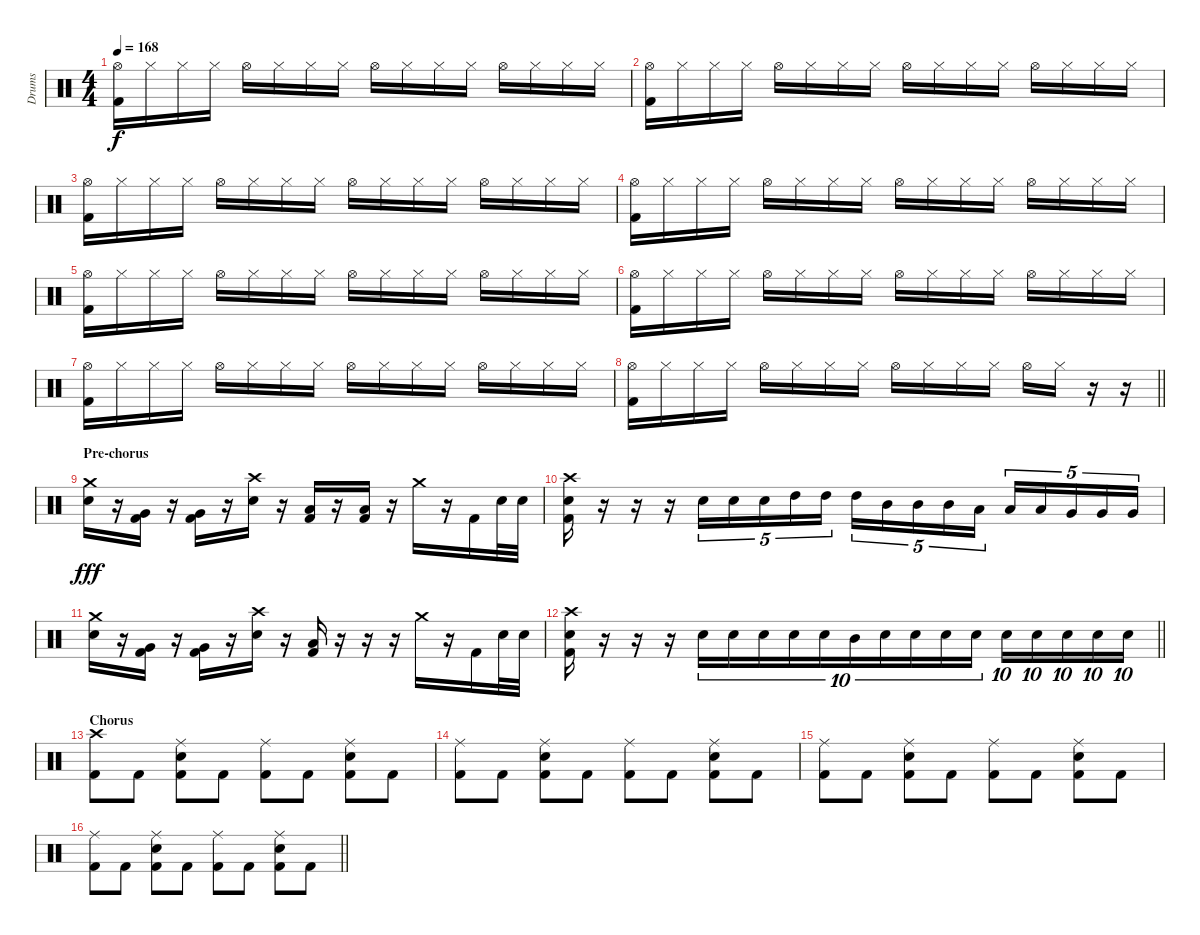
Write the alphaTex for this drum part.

\track ("Drums" "Drums") {instrument percussion}
\staff {score}
\articulation defaults
\ts (4 4)
\tempo 168
\clef neutral
\ks c
("Hi-Hat (open)" "Kick (hit) 2").16{dy f} "Hi-Hat (closed)".16 "Hi-Hat (closed)".16 "Hi-Hat (closed)".16 "Hi-Hat (open)".16 "Hi-Hat (closed)".16 "Hi-Hat (closed)".16 "Hi-Hat (closed)".16 "Hi-Hat (open)".16 "Hi-Hat (closed)".16 "Hi-Hat (closed)".16 "Hi-Hat (closed)".16 "Hi-Hat (open)".16 "Hi-Hat (closed)".16 "Hi-Hat (closed)".16 "Hi-Hat (closed)".16 |
("Hi-Hat (open)" "Kick (hit) 2").16 "Hi-Hat (closed)".16 "Hi-Hat (closed)".16 "Hi-Hat (closed)".16 "Hi-Hat (open)".16 "Hi-Hat (closed)".16 "Hi-Hat (closed)".16 "Hi-Hat (closed)".16 "Hi-Hat (open)".16 "Hi-Hat (closed)".16 "Hi-Hat (closed)".16 "Hi-Hat (closed)".16 "Hi-Hat (open)".16 "Hi-Hat (closed)".16 "Hi-Hat (closed)".16 "Hi-Hat (closed)".16 |
("Hi-Hat (open)" "Kick (hit) 2").16 "Hi-Hat (closed)".16 "Hi-Hat (closed)".16 "Hi-Hat (closed)".16 "Hi-Hat (open)".16 "Hi-Hat (closed)".16 "Hi-Hat (closed)".16 "Hi-Hat (closed)".16 "Hi-Hat (open)".16 "Hi-Hat (closed)".16 "Hi-Hat (closed)".16 "Hi-Hat (closed)".16 "Hi-Hat (open)".16 "Hi-Hat (closed)".16 "Hi-Hat (closed)".16 "Hi-Hat (closed)".16 |
("Hi-Hat (open)" "Kick (hit) 2").16 "Hi-Hat (closed)".16 "Hi-Hat (closed)".16 "Hi-Hat (closed)".16 "Hi-Hat (open)".16 "Hi-Hat (closed)".16 "Hi-Hat (closed)".16 "Hi-Hat (closed)".16 "Hi-Hat (open)".16 "Hi-Hat (closed)".16 "Hi-Hat (closed)".16 "Hi-Hat (closed)".16 "Hi-Hat (open)".16 "Hi-Hat (closed)".16 "Hi-Hat (closed)".16 "Hi-Hat (closed)".16 |
("Hi-Hat (open)" "Kick (hit) 2").16 "Hi-Hat (closed)".16 "Hi-Hat (closed)".16 "Hi-Hat (closed)".16 "Hi-Hat (open)".16 "Hi-Hat (closed)".16 "Hi-Hat (closed)".16 "Hi-Hat (closed)".16 "Hi-Hat (open)".16 "Hi-Hat (closed)".16 "Hi-Hat (closed)".16 "Hi-Hat (closed)".16 "Hi-Hat (open)".16 "Hi-Hat (closed)".16 "Hi-Hat (closed)".16 "Hi-Hat (closed)".16 |
("Hi-Hat (open)" "Kick (hit) 2").16 "Hi-Hat (closed)".16 "Hi-Hat (closed)".16 "Hi-Hat (closed)".16 "Hi-Hat (open)".16 "Hi-Hat (closed)".16 "Hi-Hat (closed)".16 "Hi-Hat (closed)".16 "Hi-Hat (open)".16 "Hi-Hat (closed)".16 "Hi-Hat (closed)".16 "Hi-Hat (closed)".16 "Hi-Hat (open)".16 "Hi-Hat (closed)".16 "Hi-Hat (closed)".16 "Hi-Hat (closed)".16 |
("Hi-Hat (open)" "Kick (hit) 2").16 "Hi-Hat (closed)".16 "Hi-Hat (closed)".16 "Hi-Hat (closed)".16 "Hi-Hat (open)".16 "Hi-Hat (closed)".16 "Hi-Hat (closed)".16 "Hi-Hat (closed)".16 "Hi-Hat (open)".16 "Hi-Hat (closed)".16 "Hi-Hat (closed)".16 "Hi-Hat (closed)".16 "Hi-Hat (open)".16 "Hi-Hat (closed)".16 "Hi-Hat (closed)".16 "Hi-Hat (closed)".16 |
\barLineRight lightlight
("Hi-Hat (open)" "Kick (hit) 2").16 "Hi-Hat (closed)".16 "Hi-Hat (closed)".16 "Hi-Hat (closed)".16 "Hi-Hat (open)".16 "Hi-Hat (closed)".16 "Hi-Hat (closed)".16 "Hi-Hat (closed)".16 "Hi-Hat (open)".16 "Hi-Hat (closed)".16 "Hi-Hat (closed)".16 "Hi-Hat (closed)".16 "Hi-Hat (open)".16 "Hi-Hat (closed)".16 r.16 r.16 |
\section ("" "Pre-chorus")
("Crash medium (hit)" "Snare (hit) 2").16{dy fff} r.16 ("Very Low Tom (hit)" "Kick (hit) 2").16 r.16 ("Very Low Tom (hit)" "Kick (hit) 2").16 r.16 ("Crash high (hit)" "Snare (hit) 2").16 r.16 ("Low Floor Tom (hit)" "Kick (hit) 2").16 r.16 ("Low Floor Tom (hit)" "Kick (hit) 2").16 r.16 "Crash medium (hit)".16 r.16 "Kick (hit) 2".16 "Snare (hit) 2".32 "Snare (hit) 2".32 |
("Crash high (hit)" "Snare (hit) 2" "Kick (hit) 2").16 r.16 r.16 r.16 "Snare (hit) 2".16{tu (5 4)} "Snare (hit) 2".16{tu (5 4)} "Snare (hit) 2".16{tu (5 4)} "High Tom (hit)".16{tu (5 4)} "High Tom (hit)".16{tu (5 4)} "High Tom (hit)".16{tu (5 4)} "Mid Tom (hit)".16{tu (5 4)} "Mid Tom (hit)".16{tu (5 4)} "Mid Tom (hit)".16{tu (5 4)} "Low Tom (hit)".16{tu (5 4)} "Low Tom (hit)".16{tu (5 4)} "Low Tom (hit)".16{tu (5 4)} "Very Low Tom (hit)".16{tu (5 4)} "Very Low Tom (hit)".16{tu (5 4)} "Very Low Tom (hit)".16{tu (5 4)} |
("Crash medium (hit)" "Snare (hit) 2").16 r.16 ("Very Low Tom (hit)" "Kick (hit) 2").16 r.16 ("Very Low Tom (hit)" "Kick (hit) 2").16 r.16 ("Crash high (hit)" "Snare (hit) 2").16 r.16 ("Low Floor Tom (hit)" "Kick (hit) 2").16 r.16 r.16 r.16 "Crash medium (hit)".16 r.16 "Kick (hit) 2".16 "Snare (hit) 2".32 "Snare (hit) 2".32 |
\barLineRight lightlight
("Crash high (hit)" "Snare (hit) 2" "Kick (hit) 2").16 r.16 r.16 r.16 "Snare (hit) 2".16{tu (10 8)} "Snare (hit) 2".16{tu (10 8)} "Snare (hit) 2".16{tu (10 8)} "Snare (hit) 2".16{tu (10 8)} "Snare (hit) 2".16{tu (10 8)} "Mid Tom (hit)".16{tu (10 8)} "Snare (hit) 2".16{tu (10 8)} "Snare (hit) 2".16{tu (10 8)} "Snare (hit) 2".16{tu (10 8)} "Snare (hit) 2".16{tu (10 8)} "Snare (hit) 2".16{tu (10 8)} "Snare (hit) 2".16{tu (10 8)} "Snare (hit) 2".16{tu (10 8)} "Snare (hit) 2".16{tu (10 8)} "Snare (hit) 2".16{tu (10 8)} |
\section ("" "Chorus")
("Crash high (hit)" "Kick (hit) 2").8 "Kick (hit) 2".8 ("Ride (middle)" "Snare (hit) 2" "Kick (hit) 2").8 "Kick (hit) 2".8 ("Ride (middle)" "Kick (hit) 2").8 "Kick (hit) 2".8 ("Ride (middle)" "Snare (hit) 2" "Kick (hit) 2").8 "Kick (hit) 2".8 |
("Ride (middle)" "Kick (hit) 2").8 "Kick (hit) 2".8 ("Ride (middle)" "Snare (hit) 2" "Kick (hit) 2").8 "Kick (hit) 2".8 ("Ride (middle)" "Kick (hit) 2").8 "Kick (hit) 2".8 ("Ride (middle)" "Snare (hit) 2" "Kick (hit) 2").8 "Kick (hit) 2".8 |
("Ride (middle)" "Kick (hit) 2").8 "Kick (hit) 2".8 ("Ride (middle)" "Snare (hit) 2" "Kick (hit) 2").8 "Kick (hit) 2".8 ("Ride (middle)" "Kick (hit) 2").8 "Kick (hit) 2".8 ("Ride (middle)" "Snare (hit) 2" "Kick (hit) 2").8 "Kick (hit) 2".8 |
\barLineRight lightlight
("Ride (middle)" "Kick (hit) 2").8 "Kick (hit) 2".8 ("Ride (middle)" "Snare (hit) 2" "Kick (hit) 2").8 "Kick (hit) 2".8 ("Ride (middle)" "Kick (hit) 2").8 "Kick (hit) 2".8 ("Ride (middle)" "Snare (hit) 2" "Kick (hit) 2").8 "Kick (hit) 2".8
